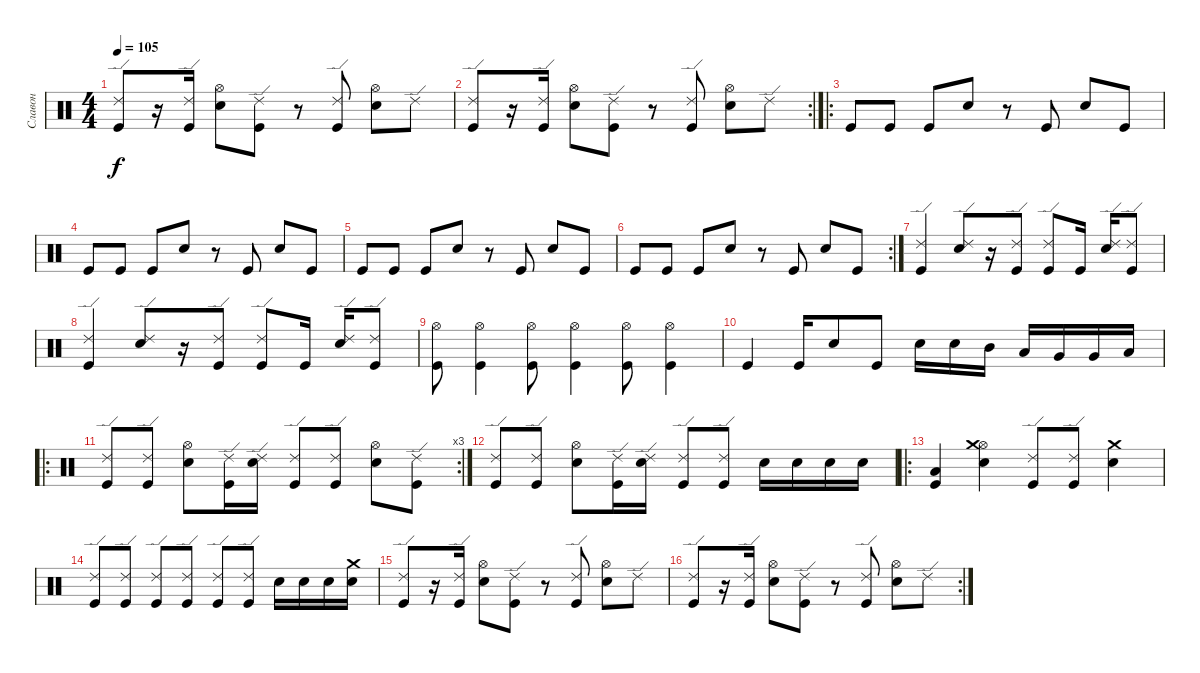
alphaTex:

\track ("Славон" "Славон") {instrument percussion}
\staff {score}
\articulation defaults
\ts (4 4)
\tempo 105
\clef neutral
\ks c
("Ride (edge) 2" "Kick (hit)").8{dy f} r.16 ("Ride (edge) 2" "Kick (hit)").16 ("Hi-Hat (open)" "Electric Snare (hit)").8 ("Ride (edge) 2" "Kick (hit)").8 r.8 ("Ride (edge) 2" "Kick (hit)").8 ("Hi-Hat (open)" "Electric Snare (hit)").8 "Ride (edge) 2".8 |
\rc 2
("Ride (edge) 2" "Kick (hit)").8 r.16 ("Ride (edge) 2" "Kick (hit)").16 ("Hi-Hat (open)" "Electric Snare (hit)").8 ("Ride (edge) 2" "Kick (hit)").8 r.8 ("Ride (edge) 2" "Kick (hit)").8 ("Hi-Hat (open)" "Electric Snare (hit)").8 "Ride (edge) 2".8 |
\ro "Kick (hit)".8 "Kick (hit)".8 "Kick (hit)".8 "Electric Snare (hit)".8
r.8 "Kick (hit)".8 "Electric Snare (hit)".8 "Kick (hit)".8 |
"Kick (hit)".8 "Kick (hit)".8 "Kick (hit)".8 "Electric Snare (hit)".8 r.8 "Kick (hit)".8 "Electric Snare (hit)".8 "Kick (hit)".8 |
"Kick (hit)".8 "Kick (hit)".8 "Kick (hit)".8 "Electric Snare (hit)".8 r.8 "Kick (hit)".8 "Electric Snare (hit)".8 "Kick (hit)".8 |
\rc 2 "Kick (hit)".8 "Kick (hit)".8 "Kick (hit)".8 "Electric Snare (hit)".8
r.8 "Kick (hit)".8 "Electric Snare (hit)".8 "Kick (hit)".8 |
("Ride (edge) 2" "Kick (hit)").4 ("Ride (edge) 2" "Electric Snare (hit)").8 r.16 ("Ride (edge) 2" "Kick (hit)").8 ("Ride (edge) 2" "Kick (hit)").8 "Kick (hit)".16 ("Ride (edge) 2" "Electric Snare (hit)").16 ("Ride (edge) 2" "Kick (hit)").8 |
("Ride (edge) 2" "Kick (hit)").4 ("Ride (edge) 2" "Electric Snare (hit)").8 r.16 ("Ride (edge) 2" "Kick (hit)").8 ("Ride (edge) 2" "Kick (hit)").8 "Kick (hit)".16 ("Ride (edge) 2" "Electric Snare (hit)").16 ("Ride (edge) 2" "Kick (hit)").8 |
("Hi-Hat (open)" "Kick (hit)").8 ("Hi-Hat (open)" "Kick (hit)").4 ("Hi-Hat (open)" "Kick (hit)").8 ("Hi-Hat (open)" "Kick (hit)").4 ("Hi-Hat (open)" "Kick (hit)").8 ("Hi-Hat (open)" "Kick (hit)").4 |
"Kick (hit)".4 "Kick (hit)".16 "Electric Snare (hit)".8 "Kick (hit)".8 "Electric Snare (hit)".16 "Electric Snare (hit)".16 "Mid Tom (hit)".16 "Low Tom (hit)".16 "Very Low Tom (hit)".16 "Very Low Tom (hit)".16 "Low Floor Tom (hit)".16 |
\ro
\rc 3
("Ride (edge) 2" "Kick (hit)").8 ("Ride (edge) 2" "Kick (hit)").8 ("Hi-Hat (open)" "Electric Snare (hit)").8 ("Ride (edge) 2" "Kick (hit)").16 ("Ride (edge) 2" "Electric Snare (hit)").16 ("Ride (edge) 2" "Kick (hit)").8 ("Ride (edge) 2" "Kick (hit)").8 ("Hi-Hat (open)" "Electric Snare (hit)").8 ("Ride (edge) 2" "Kick (hit)").8 |
("Ride (edge) 2" "Kick (hit)").8 ("Ride (edge) 2" "Kick (hit)").8 ("Hi-Hat (open)" "Electric Snare (hit)").8 ("Ride (edge) 2" "Kick (hit)").16 ("Ride (edge) 2" "Electric Snare (hit)").16 ("Ride (edge) 2" "Kick (hit)").8 ("Ride (edge) 2" "Kick (hit)").8 "Electric Snare (hit)".16 "Electric Snare (hit)".16 "Electric Snare (hit)".16 "Electric Snare (hit)".16 |
\ro
("Low Floor Tom (hit)" "Kick (hit)").4 ("Hi-Hat (open)" "Crash medium (hit)" "Electric Snare (hit)").4 ("Ride (edge) 2" "Kick (hit)").8 ("Ride (edge) 2" "Kick (hit)").8 ("Crash medium (hit)" "Electric Snare (hit)").4 |
("Ride (edge) 2" "Kick (hit)").8 ("Ride (edge) 2" "Kick (hit)").8 ("Ride (edge) 2" "Kick (hit)").8 ("Ride (edge) 2" "Kick (hit)").8 ("Ride (edge) 2" "Kick (hit)").8 ("Ride (edge) 2" "Kick (hit)").8 "Electric Snare (hit)".16 "Electric Snare (hit)".16 "Electric Snare (hit)".16 ("Crash medium (hit)" "Electric Snare (hit)").16 |
("Ride (edge) 2" "Kick (hit)").8 r.16 ("Ride (edge) 2" "Kick (hit)").16 ("Hi-Hat (open)" "Electric Snare (hit)").8 ("Ride (edge) 2" "Kick (hit)").8 r.8 ("Ride (edge) 2" "Kick (hit)").8 ("Hi-Hat (open)" "Electric Snare (hit)").8 "Ride (edge) 2".8 |
\rc 2
("Ride (edge) 2" "Kick (hit)").8 r.16 ("Ride (edge) 2" "Kick (hit)").16 ("Hi-Hat (open)" "Electric Snare (hit)").8 ("Ride (edge) 2" "Kick (hit)").8 r.8 ("Ride (edge) 2" "Kick (hit)").8 ("Hi-Hat (open)" "Electric Snare (hit)").8 "Ride (edge) 2".8
